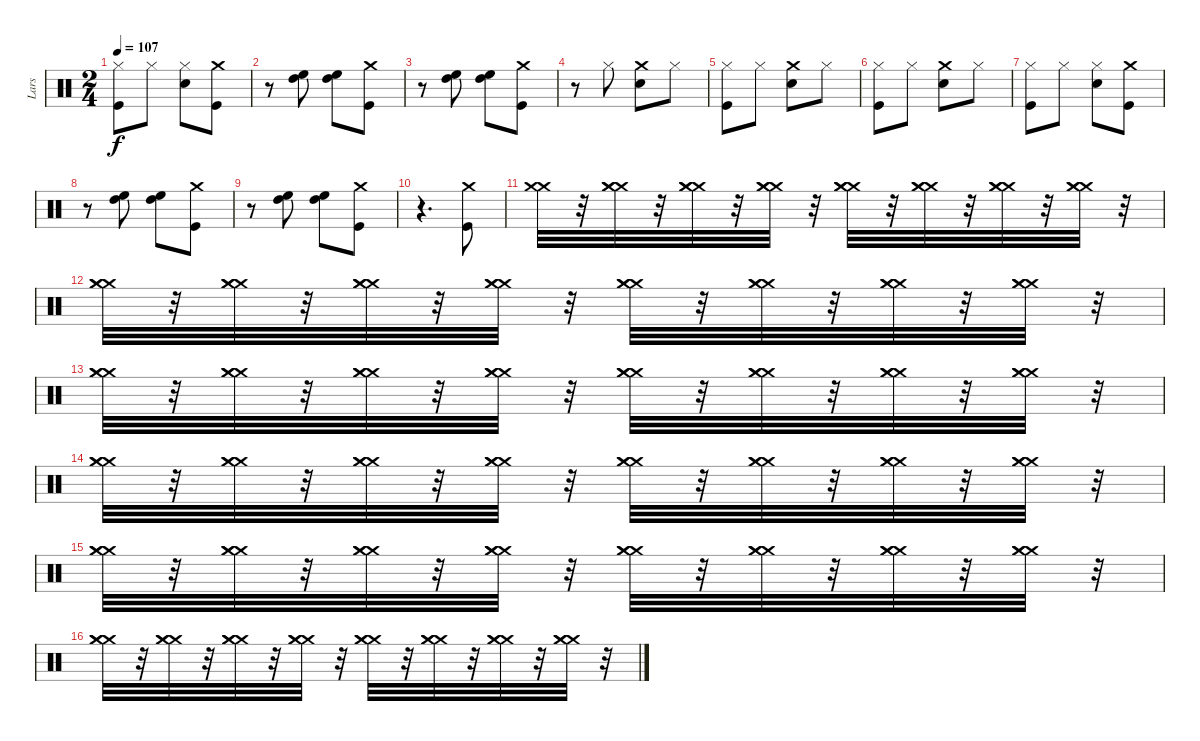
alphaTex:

\track ("Lars" "Lars") {instrument percussion}
\staff {score}
\articulation defaults
\ts (2 4)
\tempo 107
\clef neutral
\ks c
("Hi-Hat (closed)" "Kick (hit)").8{dy f} "Hi-Hat (closed)".8 ("Hi-Hat (closed)" "Snare (hit) 2").8 ("Kick (hit)" "Crash medium (hit)").8 |
r.8 ("High Tom (hit)" "High Floor Tom (hit)").8 ("High Tom (hit)" "High Floor Tom (hit)").8 ("Crash medium (hit)" "Kick (hit)").8 |
r.8 ("High Tom (hit)" "High Floor Tom (hit)").8 ("High Tom (hit)" "High Floor Tom (hit)").8 ("Crash medium (hit)" "Kick (hit)").8 |
r.8 "Hi-Hat (closed)".8 ("Crash medium (hit)" "Snare (hit) 2").8 "Hi-Hat (closed)".8 |
("Kick (hit)" "Hi-Hat (closed)").8 "Hi-Hat (closed)".8 ("Crash medium (hit)" "Snare (hit) 2").8 "Hi-Hat (closed)".8 |
("Hi-Hat (closed)" "Kick (hit)").8 "Hi-Hat (closed)".8 ("Crash medium (hit)" "Snare (hit) 2").8 "Hi-Hat (closed)".8 |
("Kick (hit)" "Hi-Hat (closed)").8 "Hi-Hat (closed)".8 ("Hi-Hat (closed)" "Snare (hit) 2").8 ("Kick (hit)" "Crash medium (hit)").8 |
r.8 ("High Tom (hit)" "High Floor Tom (hit)").8 ("High Tom (hit)" "High Floor Tom (hit)").8 ("Crash medium (hit)" "Kick (hit)").8 |
r.8 ("High Tom (hit)" "High Floor Tom (hit)").8 ("High Tom (hit)" "High Floor Tom (hit)").8 ("Crash medium (hit)" "Kick (hit)").8 |
r.4{d} ("Crash medium (hit)" "Kick (hit)").8 |
("Crash medium (hit)" "Crash medium (hit)").32 r.32 ("Crash medium (hit)" "Crash medium (hit)" "Crash medium (hit)").32 r.32 ("Crash medium (hit)" "Crash medium (hit)" "Crash medium (hit)").32 r.32 ("Crash medium (hit)" "Crash medium (hit)" "Crash medium (hit)").32 r.32 ("Crash medium (hit)" "Crash medium (hit)" "Crash medium (hit)").32 r.32 ("Crash medium (hit)" "Crash medium (hit)" "Crash medium (hit)").32 r.32 ("Crash medium (hit)" "Crash medium (hit)" "Crash medium (hit)").32 r.32 ("Crash medium (hit)" "Crash medium (hit)" "Crash medium (hit)").32 r.32 |
("Crash medium (hit)" "Crash medium (hit)" "Crash medium (hit)").32 r.32 ("Crash medium (hit)" "Crash medium (hit)" "Crash medium (hit)").32 r.32 ("Crash medium (hit)" "Crash medium (hit)" "Crash medium (hit)").32 r.32 ("Crash medium (hit)" "Crash medium (hit)" "Crash medium (hit)").32 r.32 ("Crash medium (hit)" "Crash medium (hit)" "Crash medium (hit)").32 r.32 ("Crash medium (hit)" "Crash medium (hit)" "Crash medium (hit)").32 r.32 ("Crash medium (hit)" "Crash medium (hit)" "Crash medium (hit)").32 r.32 ("Crash medium (hit)" "Crash medium (hit)" "Crash medium (hit)").32 r.32 |
("Crash medium (hit)" "Crash medium (hit)" "Crash medium (hit)").32 r.32 ("Crash medium (hit)" "Crash medium (hit)" "Crash medium (hit)").32 r.32 ("Crash medium (hit)" "Crash medium (hit)" "Crash medium (hit)").32 r.32 ("Crash medium (hit)" "Crash medium (hit)" "Crash medium (hit)").32 r.32 ("Crash medium (hit)" "Crash medium (hit)" "Crash medium (hit)").32 r.32 ("Crash medium (hit)" "Crash medium (hit)" "Crash medium (hit)").32 r.32 ("Crash medium (hit)" "Crash medium (hit)" "Crash medium (hit)").32 r.32 ("Crash medium (hit)" "Crash medium (hit)" "Crash medium (hit)").32 r.32 |
("Crash medium (hit)" "Crash medium (hit)" "Crash medium (hit)").32 r.32 ("Crash medium (hit)" "Crash medium (hit)" "Crash medium (hit)").32 r.32 ("Crash medium (hit)" "Crash medium (hit)" "Crash medium (hit)").32 r.32 ("Crash medium (hit)" "Crash medium (hit)" "Crash medium (hit)").32 r.32 ("Crash medium (hit)" "Crash medium (hit)" "Crash medium (hit)").32 r.32 ("Crash medium (hit)" "Crash medium (hit)" "Crash medium (hit)").32 r.32 ("Crash medium (hit)" "Crash medium (hit)" "Crash medium (hit)").32 r.32 ("Crash medium (hit)" "Crash medium (hit)" "Crash medium (hit)").32 r.32 |
("Crash medium (hit)" "Crash medium (hit)" "Crash medium (hit)").32 r.32 ("Crash medium (hit)" "Crash medium (hit)" "Crash medium (hit)").32 r.32 ("Crash medium (hit)" "Crash medium (hit)" "Crash medium (hit)").32 r.32 ("Crash medium (hit)" "Crash medium (hit)" "Crash medium (hit)").32 r.32 ("Crash medium (hit)" "Crash medium (hit)" "Crash medium (hit)").32 r.32 ("Crash medium (hit)" "Crash medium (hit)" "Crash medium (hit)").32 r.32 ("Crash medium (hit)" "Crash medium (hit)" "Crash medium (hit)").32 r.32 ("Crash medium (hit)" "Crash medium (hit)" "Crash medium (hit)").32 r.32 |
("Crash medium (hit)" "Crash medium (hit)" "Crash medium (hit)").32 r.32 ("Crash medium (hit)" "Crash medium (hit)" "Crash medium (hit)").32 r.32 ("Crash medium (hit)" "Crash medium (hit)" "Crash medium (hit)").32 r.32 ("Crash medium (hit)" "Crash medium (hit)" "Crash medium (hit)").32 r.32 ("Crash medium (hit)" "Crash medium (hit)" "Crash medium (hit)").32 r.32 ("Crash medium (hit)" "Crash medium (hit)" "Crash medium (hit)").32 r.32 ("Crash medium (hit)" "Crash medium (hit)" "Crash medium (hit)").32 r.32 ("Crash medium (hit)" "Crash medium (hit)" "Crash medium (hit)").32 r.32
